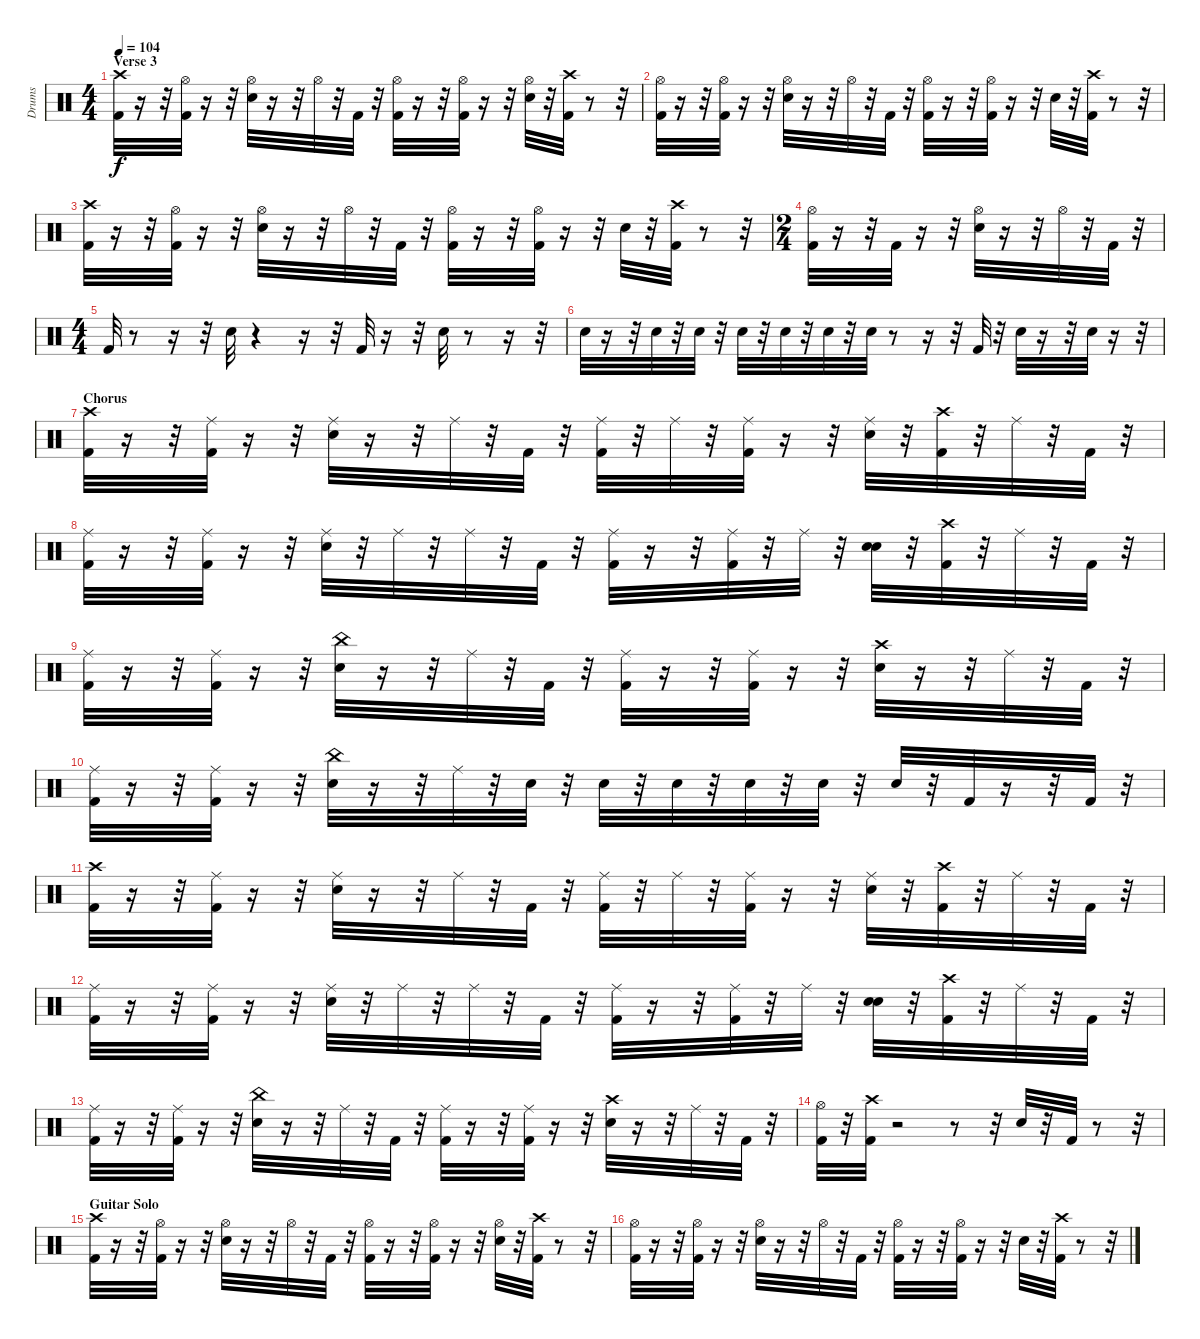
\track ("Drums" "Drums") {instrument percussion}
\staff {score}
\articulation defaults
\ts (4 4)
\section ("" "Verse 3")
\tempo 104
\clef neutral
\ks c
("Crash high (hit)" "Kick (hit) 2").32{dy f} r.16 r.32 ("Hi-Hat (open)" "Kick (hit) 2").32 r.16 r.32 ("Hi-Hat (open)" "Snare (hit) 2").32 r.16 r.32 "Hi-Hat (open)".32 r.32 "Kick (hit) 2".32 r.32 ("Kick (hit) 2" "Hi-Hat (open)").32 r.16 r.32 ("Kick (hit) 2" "Hi-Hat (open)").32 r.16 r.32 ("Hi-Hat (open)" "Snare (hit) 2").32 r.32 ("Kick (hit) 2" "Crash high (hit)").32 r.8 r.32 |
("Hi-Hat (open)" "Kick (hit) 2").32 r.16 r.32 ("Kick (hit) 2" "Hi-Hat (open)").32 r.16 r.32 ("Hi-Hat (open)" "Snare (hit) 2").32 r.16 r.32 "Hi-Hat (open)".32 r.32 "Kick (hit) 2".32 r.32 ("Kick (hit) 2" "Hi-Hat (open)").32 r.16 r.32 ("Kick (hit) 2" "Hi-Hat (open)").32 r.16 r.32 "Snare (hit) 2".32 r.32 ("Kick (hit) 2" "Crash high (hit)").32 r.8 r.32 |
("Crash high (hit)" "Kick (hit) 2").32 r.16 r.32 ("Kick (hit) 2" "Hi-Hat (open)").32 r.16 r.32 ("Snare (hit) 2" "Hi-Hat (open)").32 r.16 r.32 "Hi-Hat (open)".32 r.32 "Kick (hit) 2".32 r.32 ("Kick (hit) 2" "Hi-Hat (open)").32 r.16 r.32 ("Hi-Hat (open)" "Kick (hit) 2").32 r.16 r.32 "Snare (hit) 2".32 r.32 ("Crash high (hit)" "Kick (hit) 2").32 r.8 r.32 |
\ts (2 4)
("Kick (hit) 2" "Hi-Hat (open)").32 r.16 r.32 "Kick (hit) 2".32 r.16 r.32 ("Snare (hit) 2" "Hi-Hat (open)").32 r.16 r.32 "Hi-Hat (open)".32 r.32 "Kick (hit) 2".32 r.32 |
\ts (4 4)
"Kick (hit) 2".32 r.8 r.16 r.32 "Snare (hit) 2".32 r.4 r.16 r.32 "Kick (hit) 2".32 r.16 r.32 "Snare (hit) 2".32 r.8 r.16 r.32 |
"Snare (hit) 2".32 r.16 r.32 "Snare (hit) 2".32 r.32 "Snare (hit) 2".32 r.32 "Snare (hit) 2".32 r.32 "Snare (hit) 2".32 r.32 "Snare (hit) 2".32 r.32 "Snare (hit) 2".32 r.8 r.16 r.32 "Kick (hit) 2".32 r.32 "Snare (hit) 2".32 r.16 r.32 "Snare (hit) 2".32 r.16 r.32 |
\section ("" "Chorus")
("Crash high (hit)" "Kick (hit) 2").32 r.16 r.32 ("Kick (hit) 2" "Ride (middle)").32 r.16 r.32 ("Ride (middle)" "Snare (hit) 2").32 r.16 r.32 "Ride (middle)".32 r.32 "Kick (hit) 2".32 r.32 ("Kick (hit) 2" "Ride (middle)").32 r.32 "Ride (middle)".32 r.32 ("Ride (middle)" "Kick (hit) 2").32 r.16 r.32 ("Snare (hit) 2" "Ride (middle)").32 r.32 ("Crash high (hit)" "Kick (hit) 2").32 r.32 "Ride (middle)".32 r.32 "Kick (hit) 2".32 r.32 |
("Kick (hit) 2" "Ride (middle)").32 r.16 r.32 ("Kick (hit) 2" "Ride (middle)").32 r.16 r.32 ("Snare (hit) 2" "Ride (middle)").32 r.32 "Ride (middle)".32 r.32 "Ride (middle)".32 r.32 "Kick (hit) 2".32 r.32 ("Ride (middle)" "Kick (hit) 2").32 r.16 r.32 ("Kick (hit) 2" "Ride (middle)").32 r.32 "Ride (middle)".32 r.32 ("Electric Snare (hit)" "Snare (hit) 2").32 r.32 ("Kick (hit) 2" "Crash high (hit)").32 r.32 "Ride (middle)".32 r.32 "Kick (hit) 2".32 r.32 |
("Kick (hit) 2" "Ride (middle)").32 r.16 r.32 ("Kick (hit) 2" "Ride (middle)").32 r.16 r.32 ("China (hit)" "Snare (hit) 2").32 r.16 r.32 "Ride (middle)".32 r.32 "Kick (hit) 2".32 r.32 ("Kick (hit) 2" "Ride (middle)").32 r.16 r.32 ("Ride (middle)" "Kick (hit) 2").32 r.16 r.32 ("Snare (hit) 2" "Crash high (hit)").32 r.16 r.32 "Ride (middle)".32 r.32 "Kick (hit) 2".32 r.32 |
("Ride (middle)" "Kick (hit) 2").32 r.16 r.32 ("Kick (hit) 2" "Ride (middle)").32 r.16 r.32 ("Snare (hit) 2" "China (hit)").32 r.16 r.32 "Ride (middle)".32 r.32 "Snare (hit) 2".32 r.32 "Snare (hit) 2".32 r.32 "Snare (hit) 2".32 r.32 "Snare (hit) 2".32 r.32 "Snare (hit) 2".32 r.32 "Snare (hit) 2".32 r.32 "Kick (hit) 2".32 r.16 r.32 "Kick (hit) 2".32 r.32 |
("Crash high (hit)" "Kick (hit) 2").32 r.16 r.32 ("Kick (hit) 2" "Ride (middle)").32 r.16 r.32 ("Ride (middle)" "Snare (hit) 2").32 r.16 r.32 "Ride (middle)".32 r.32 "Kick (hit) 2".32 r.32 ("Kick (hit) 2" "Ride (middle)").32 r.32 "Ride (middle)".32 r.32 ("Ride (middle)" "Kick (hit) 2").32 r.16 r.32 ("Snare (hit) 2" "Ride (middle)").32 r.32 ("Crash high (hit)" "Kick (hit) 2").32 r.32 "Ride (middle)".32 r.32 "Kick (hit) 2".32 r.32 |
("Kick (hit) 2" "Ride (middle)").32 r.16 r.32 ("Kick (hit) 2" "Ride (middle)").32 r.16 r.32 ("Snare (hit) 2" "Ride (middle)").32 r.32 "Ride (middle)".32 r.32 "Ride (middle)".32 r.32 "Kick (hit) 2".32 r.32 ("Ride (middle)" "Kick (hit) 2").32 r.16 r.32 ("Kick (hit) 2" "Ride (middle)").32 r.32 "Ride (middle)".32 r.32 ("Electric Snare (hit)" "Snare (hit) 2").32 r.32 ("Kick (hit) 2" "Crash high (hit)").32 r.32 "Ride (middle)".32 r.32 "Kick (hit) 2".32 r.32 |
("Kick (hit) 2" "Ride (middle)").32 r.16 r.32 ("Kick (hit) 2" "Ride (middle)").32 r.16 r.32 ("China (hit)" "Snare (hit) 2").32 r.16 r.32 "Ride (middle)".32 r.32 "Kick (hit) 2".32 r.32 ("Kick (hit) 2" "Ride (middle)").32 r.16 r.32 ("Ride (middle)" "Kick (hit) 2").32 r.16 r.32 ("Snare (hit) 2" "Crash high (hit)").32 r.16 r.32 "Ride (middle)".32 r.32 "Kick (hit) 2".32 r.32 |
("Hi-Hat (open)" "Kick (hit) 2").32 r.32 ("Crash high (hit)" "Kick (hit) 2").32 r.2 r.8 r.32 "Snare (hit) 2".32 r.32 "Kick (hit) 2".32 r.8 r.32 |
\section ("" "Guitar Solo")
("Crash high (hit)" "Kick (hit) 2").32 r.16 r.32 ("Hi-Hat (open)" "Kick (hit) 2").32 r.16 r.32 ("Hi-Hat (open)" "Snare (hit) 2").32 r.16 r.32 "Hi-Hat (open)".32 r.32 "Kick (hit) 2".32 r.32 ("Kick (hit) 2" "Hi-Hat (open)").32 r.16 r.32 ("Kick (hit) 2" "Hi-Hat (open)").32 r.16 r.32 ("Hi-Hat (open)" "Snare (hit) 2").32 r.32 ("Kick (hit) 2" "Crash high (hit)").32 r.8 r.32 |
("Hi-Hat (open)" "Kick (hit) 2").32 r.16 r.32 ("Kick (hit) 2" "Hi-Hat (open)").32 r.16 r.32 ("Hi-Hat (open)" "Snare (hit) 2").32 r.16 r.32 "Hi-Hat (open)".32 r.32 "Kick (hit) 2".32 r.32 ("Kick (hit) 2" "Hi-Hat (open)").32 r.16 r.32 ("Kick (hit) 2" "Hi-Hat (open)").32 r.16 r.32 "Snare (hit) 2".32 r.32 ("Kick (hit) 2" "Crash high (hit)").32 r.8 r.32
